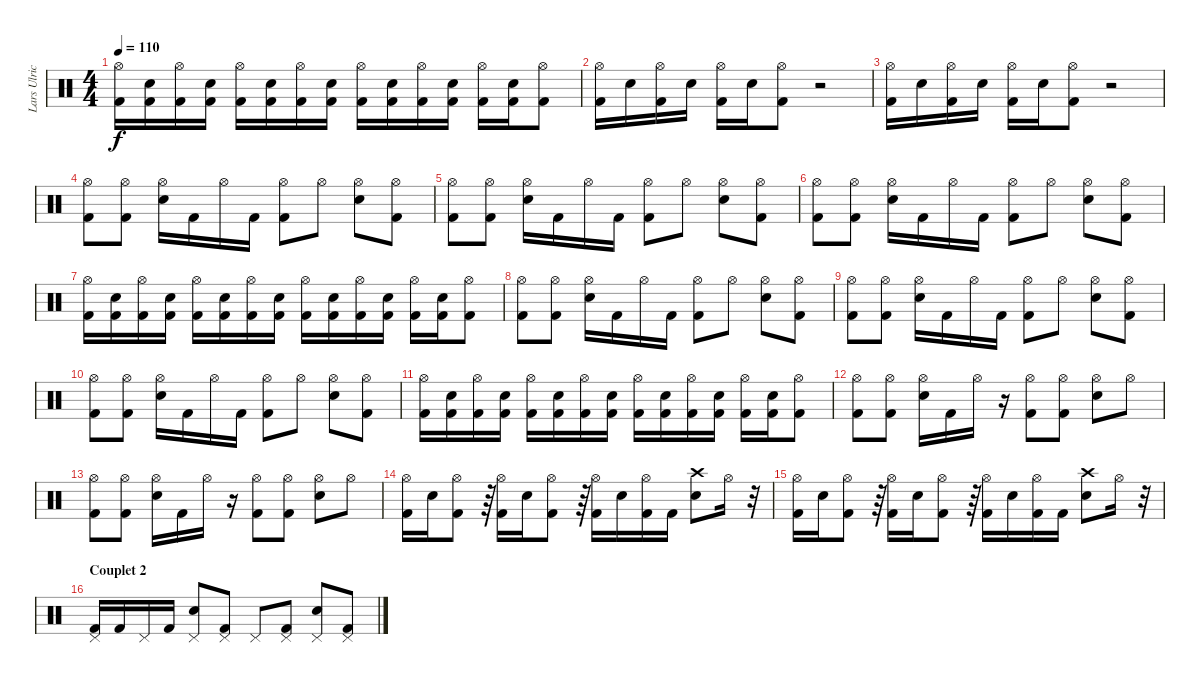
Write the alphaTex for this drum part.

\track ("Lars Ulrich" "Lars Ulric") {instrument percussion}
\staff {score}
\articulation defaults
\ts (4 4)
\tempo 110
\clef neutral
\ks c
("Hi-Hat (open)" "Kick (hit) 2").16{dy f} ("Electric Snare (hit)" "Kick (hit) 2").16 ("Hi-Hat (open)" "Kick (hit) 2").16 ("Electric Snare (hit)" "Kick (hit) 2").16 ("Hi-Hat (open)" "Kick (hit) 2").16 ("Electric Snare (hit)" "Kick (hit) 2").16 ("Hi-Hat (open)" "Kick (hit) 2").16 ("Electric Snare (hit)" "Kick (hit) 2").16 ("Hi-Hat (open)" "Kick (hit) 2").16 ("Electric Snare (hit)" "Kick (hit) 2").16 ("Hi-Hat (open)" "Kick (hit) 2").16 ("Electric Snare (hit)" "Kick (hit) 2").16 ("Hi-Hat (open)" "Kick (hit) 2").16 ("Electric Snare (hit)" "Kick (hit) 2").16 ("Hi-Hat (open)" "Kick (hit) 2").8 |
("Hi-Hat (open)" "Kick (hit) 2").16 "Electric Snare (hit)".16 ("Hi-Hat (open)" "Kick (hit) 2").16 "Electric Snare (hit)".16 ("Hi-Hat (open)" "Kick (hit) 2").16 "Electric Snare (hit)".16 ("Hi-Hat (open)" "Kick (hit) 2").8 r.2 |
("Hi-Hat (open)" "Kick (hit) 2").16 "Electric Snare (hit)".16 ("Hi-Hat (open)" "Kick (hit) 2").16 "Electric Snare (hit)".16 ("Hi-Hat (open)" "Kick (hit) 2").16 "Electric Snare (hit)".16 ("Hi-Hat (open)" "Kick (hit) 2").8 r.2 |
("Hi-Hat (open)" "Kick (hit) 2").8 ("Hi-Hat (open)" "Kick (hit) 2").8 ("Hi-Hat (open)" "Electric Snare (hit)").16 "Kick (hit) 2".16 "Hi-Hat (open)".16 "Kick (hit) 2".16 ("Hi-Hat (open)" "Kick (hit) 2").8 "Hi-Hat (open)".8 ("Hi-Hat (open)" "Electric Snare (hit)").8 ("Hi-Hat (open)" "Kick (hit) 2").8 |
("Hi-Hat (open)" "Kick (hit) 2").8 ("Hi-Hat (open)" "Kick (hit) 2").8 ("Hi-Hat (open)" "Electric Snare (hit)").16 "Kick (hit) 2".16 "Hi-Hat (open)".16 "Kick (hit) 2".16 ("Hi-Hat (open)" "Kick (hit) 2").8 "Hi-Hat (open)".8 ("Hi-Hat (open)" "Electric Snare (hit)").8 ("Hi-Hat (open)" "Kick (hit) 2").8 |
("Hi-Hat (open)" "Kick (hit) 2").8 ("Hi-Hat (open)" "Kick (hit) 2").8 ("Hi-Hat (open)" "Electric Snare (hit)").16 "Kick (hit) 2".16 "Hi-Hat (open)".16 "Kick (hit) 2".16 ("Hi-Hat (open)" "Kick (hit) 2").8 "Hi-Hat (open)".8 ("Hi-Hat (open)" "Electric Snare (hit)").8 ("Hi-Hat (open)" "Kick (hit) 2").8 |
("Hi-Hat (open)" "Kick (hit) 2").16 ("Electric Snare (hit)" "Kick (hit) 2").16 ("Hi-Hat (open)" "Kick (hit) 2").16 ("Electric Snare (hit)" "Kick (hit) 2").16 ("Hi-Hat (open)" "Kick (hit) 2").16 ("Electric Snare (hit)" "Kick (hit) 2").16 ("Hi-Hat (open)" "Kick (hit) 2").16 ("Electric Snare (hit)" "Kick (hit) 2").16 ("Hi-Hat (open)" "Kick (hit) 2").16 ("Electric Snare (hit)" "Kick (hit) 2").16 ("Hi-Hat (open)" "Kick (hit) 2").16 ("Electric Snare (hit)" "Kick (hit) 2").16 ("Hi-Hat (open)" "Kick (hit) 2").16 ("Electric Snare (hit)" "Kick (hit) 2").16 ("Hi-Hat (open)" "Kick (hit) 2").8 |
("Hi-Hat (open)" "Kick (hit) 2").8 ("Hi-Hat (open)" "Kick (hit) 2").8 ("Hi-Hat (open)" "Electric Snare (hit)").16 "Kick (hit) 2".16 "Hi-Hat (open)".16 "Kick (hit) 2".16 ("Hi-Hat (open)" "Kick (hit) 2").8 "Hi-Hat (open)".8 ("Hi-Hat (open)" "Electric Snare (hit)").8 ("Hi-Hat (open)" "Kick (hit) 2").8 |
("Hi-Hat (open)" "Kick (hit) 2").8 ("Hi-Hat (open)" "Kick (hit) 2").8 ("Hi-Hat (open)" "Electric Snare (hit)").16 "Kick (hit) 2".16 "Hi-Hat (open)".16 "Kick (hit) 2".16 ("Hi-Hat (open)" "Kick (hit) 2").8 "Hi-Hat (open)".8 ("Hi-Hat (open)" "Electric Snare (hit)").8 ("Hi-Hat (open)" "Kick (hit) 2").8 |
("Hi-Hat (open)" "Kick (hit) 2").8 ("Hi-Hat (open)" "Kick (hit) 2").8 ("Hi-Hat (open)" "Electric Snare (hit)").16 "Kick (hit) 2".16 "Hi-Hat (open)".16 "Kick (hit) 2".16 ("Hi-Hat (open)" "Kick (hit) 2").8 "Hi-Hat (open)".8 ("Hi-Hat (open)" "Electric Snare (hit)").8 ("Hi-Hat (open)" "Kick (hit) 2").8 |
("Hi-Hat (open)" "Kick (hit) 2").16 ("Electric Snare (hit)" "Kick (hit) 2").16 ("Hi-Hat (open)" "Kick (hit) 2").16 ("Electric Snare (hit)" "Kick (hit) 2").16 ("Hi-Hat (open)" "Kick (hit) 2").16 ("Electric Snare (hit)" "Kick (hit) 2").16 ("Hi-Hat (open)" "Kick (hit) 2").16 ("Electric Snare (hit)" "Kick (hit) 2").16 ("Hi-Hat (open)" "Kick (hit) 2").16 ("Electric Snare (hit)" "Kick (hit) 2").16 ("Hi-Hat (open)" "Kick (hit) 2").16 ("Electric Snare (hit)" "Kick (hit) 2").16 ("Hi-Hat (open)" "Kick (hit) 2").16 ("Electric Snare (hit)" "Kick (hit) 2").16 ("Hi-Hat (open)" "Kick (hit) 2").8 |
("Hi-Hat (open)" "Kick (hit) 2").8 ("Hi-Hat (open)" "Kick (hit) 2").8 ("Hi-Hat (open)" "Electric Snare (hit)").16 "Kick (hit) 2".16 "Hi-Hat (open)".16 r.16 ("Hi-Hat (open)" "Kick (hit) 2").8 ("Hi-Hat (open)" "Kick (hit) 2").8 ("Hi-Hat (open)" "Electric Snare (hit)").8 "Hi-Hat (open)".8 |
("Hi-Hat (open)" "Kick (hit) 2").8 ("Hi-Hat (open)" "Kick (hit) 2").8 ("Hi-Hat (open)" "Electric Snare (hit)").16 "Kick (hit) 2".16 "Hi-Hat (open)".16 r.16 ("Hi-Hat (open)" "Kick (hit) 2").8 ("Hi-Hat (open)" "Kick (hit) 2").8 ("Hi-Hat (open)" "Electric Snare (hit)").8 "Hi-Hat (open)".8 |
("Hi-Hat (open)" "Kick (hit) 2").16 "Electric Snare (hit)".16 ("Hi-Hat (open)" "Kick (hit) 2").8 r.64 ("Hi-Hat (open)" "Kick (hit) 2").16 "Electric Snare (hit)".16 ("Hi-Hat (open)" "Kick (hit) 2").8 r.64 ("Hi-Hat (open)" "Kick (hit) 2").16 "Electric Snare (hit)".16 ("Hi-Hat (open)" "Kick (hit) 2").16 "Kick (hit) 2".16 ("Crash high (hit)" "Electric Snare (hit)").8 "Hi-Hat (open)".16 r.32 |
("Hi-Hat (open)" "Kick (hit) 2").16 "Electric Snare (hit)".16 ("Hi-Hat (open)" "Kick (hit) 2").8 r.64 ("Hi-Hat (open)" "Kick (hit) 2").16 "Electric Snare (hit)".16 ("Hi-Hat (open)" "Kick (hit) 2").8 r.64 ("Hi-Hat (open)" "Kick (hit) 2").16 "Electric Snare (hit)".16 ("Hi-Hat (open)" "Kick (hit) 2").16 "Kick (hit) 2".16 ("Crash high (hit)" "Electric Snare (hit)").8 "Hi-Hat (open)".16 r.32 |
\section ("" "Couplet 2")
("Pedal Hi-Hat (hit)" "Kick (hit) 2").16 "Kick (hit) 2".16 "Pedal Hi-Hat (hit)".16 "Kick (hit) 2".16 ("Pedal Hi-Hat (hit)" "Electric Snare (hit)").8 ("Pedal Hi-Hat (hit)" "Kick (hit) 2").8 "Pedal Hi-Hat (hit)".8 ("Pedal Hi-Hat (hit)" "Kick (hit) 2").8 ("Pedal Hi-Hat (hit)" "Electric Snare (hit)").8 ("Pedal Hi-Hat (hit)" "Kick (hit) 2").8
